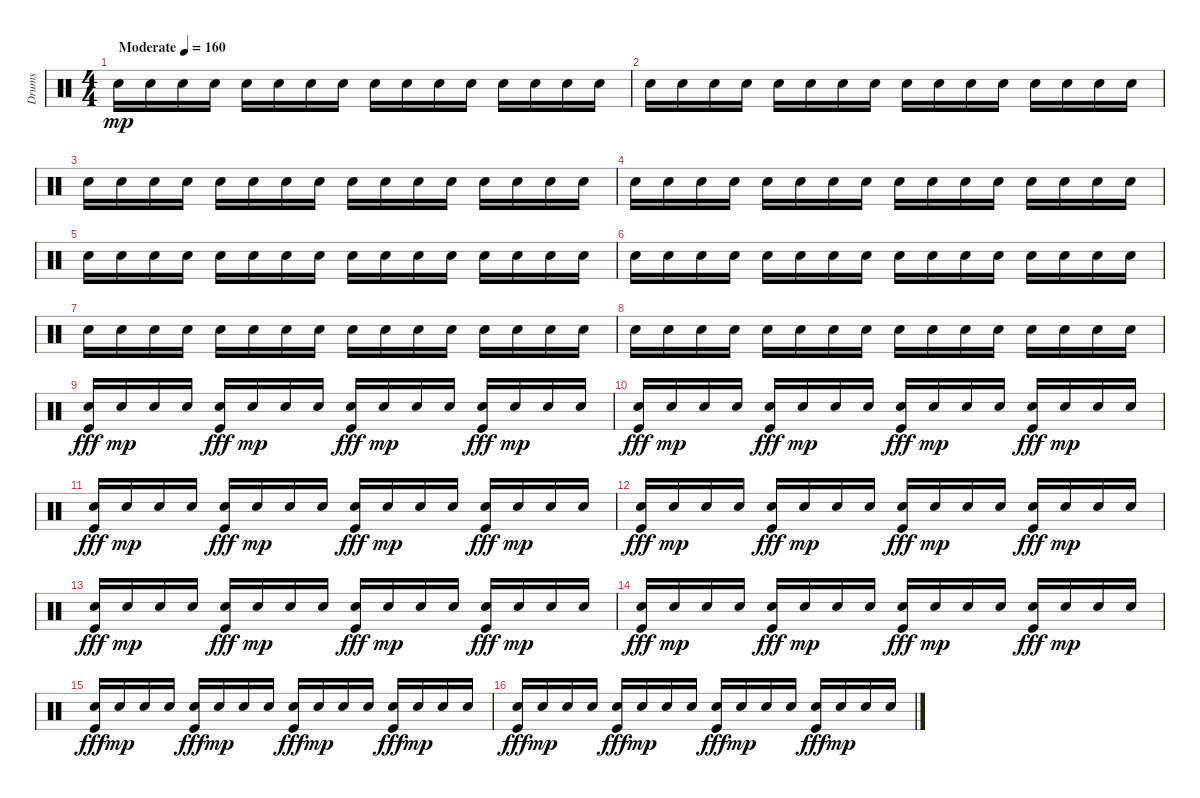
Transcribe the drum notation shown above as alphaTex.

\track ("Drums" "Drums") {instrument percussion}
\staff {score}
\articulation defaults
\ts (4 4)
\tempo (160 "Moderate")
\clef neutral
\ks c "Snare (hit) 2".16{dy mp volume 0} "Snare (hit) 2".16 "Snare (hit) 2".16 "Snare (hit) 2".16 "Snare (hit) 2".16{volume 13} "Snare (hit) 2".16 "Snare (hit) 2".16 "Snare (hit) 2".16 "Snare (hit) 2".16 "Snare (hit) 2".16 "Snare (hit) 2".16 "Snare (hit) 2".16 "Snare (hit) 2".16 "Snare (hit) 2".16 "Snare (hit) 2".16 "Snare (hit) 2".16
|
"Snare (hit) 2".16 "Snare (hit) 2".16 "Snare (hit) 2".16 "Snare (hit) 2".16 "Snare (hit) 2".16 "Snare (hit) 2".16 "Snare (hit) 2".16 "Snare (hit) 2".16 "Snare (hit) 2".16 "Snare (hit) 2".16 "Snare (hit) 2".16 "Snare (hit) 2".16 "Snare (hit) 2".16 "Snare (hit) 2".16 "Snare (hit) 2".16 "Snare (hit) 2".16 |
"Snare (hit) 2".16 "Snare (hit) 2".16 "Snare (hit) 2".16 "Snare (hit) 2".16 "Snare (hit) 2".16 "Snare (hit) 2".16 "Snare (hit) 2".16 "Snare (hit) 2".16 "Snare (hit) 2".16 "Snare (hit) 2".16 "Snare (hit) 2".16 "Snare (hit) 2".16 "Snare (hit) 2".16 "Snare (hit) 2".16 "Snare (hit) 2".16 "Snare (hit) 2".16 |
"Snare (hit) 2".16 "Snare (hit) 2".16 "Snare (hit) 2".16 "Snare (hit) 2".16 "Snare (hit) 2".16 "Snare (hit) 2".16 "Snare (hit) 2".16 "Snare (hit) 2".16 "Snare (hit) 2".16 "Snare (hit) 2".16 "Snare (hit) 2".16 "Snare (hit) 2".16 "Snare (hit) 2".16 "Snare (hit) 2".16 "Snare (hit) 2".16 "Snare (hit) 2".16 |
"Snare (hit) 2".16 "Snare (hit) 2".16 "Snare (hit) 2".16 "Snare (hit) 2".16 "Snare (hit) 2".16 "Snare (hit) 2".16 "Snare (hit) 2".16 "Snare (hit) 2".16 "Snare (hit) 2".16 "Snare (hit) 2".16 "Snare (hit) 2".16 "Snare (hit) 2".16 "Snare (hit) 2".16 "Snare (hit) 2".16 "Snare (hit) 2".16 "Snare (hit) 2".16 |
"Snare (hit) 2".16 "Snare (hit) 2".16 "Snare (hit) 2".16 "Snare (hit) 2".16 "Snare (hit) 2".16 "Snare (hit) 2".16 "Snare (hit) 2".16 "Snare (hit) 2".16 "Snare (hit) 2".16 "Snare (hit) 2".16 "Snare (hit) 2".16 "Snare (hit) 2".16 "Snare (hit) 2".16 "Snare (hit) 2".16 "Snare (hit) 2".16 "Snare (hit) 2".16 |
"Snare (hit) 2".16 "Snare (hit) 2".16 "Snare (hit) 2".16 "Snare (hit) 2".16 "Snare (hit) 2".16 "Snare (hit) 2".16 "Snare (hit) 2".16 "Snare (hit) 2".16 "Snare (hit) 2".16 "Snare (hit) 2".16 "Snare (hit) 2".16 "Snare (hit) 2".16 "Snare (hit) 2".16 "Snare (hit) 2".16 "Snare (hit) 2".16 "Snare (hit) 2".16 |
"Snare (hit) 2".16 "Snare (hit) 2".16 "Snare (hit) 2".16 "Snare (hit) 2".16 "Snare (hit) 2".16 "Snare (hit) 2".16 "Snare (hit) 2".16 "Snare (hit) 2".16 "Snare (hit) 2".16 "Snare (hit) 2".16 "Snare (hit) 2".16 "Snare (hit) 2".16 "Snare (hit) 2".16 "Snare (hit) 2".16 "Snare (hit) 2".16 "Snare (hit) 2".16 |
("Snare (hit) 2" "Kick (hit)").16{dy fff} "Snare (hit) 2".16{dy mp} "Snare (hit) 2".16 "Snare (hit) 2".16 ("Snare (hit) 2" "Kick (hit)").16{dy fff} "Snare (hit) 2".16{dy mp} "Snare (hit) 2".16 "Snare (hit) 2".16 ("Snare (hit) 2" "Kick (hit)").16{dy fff} "Snare (hit) 2".16{dy mp} "Snare (hit) 2".16 "Snare (hit) 2".16 ("Snare (hit) 2" "Kick (hit)").16{dy fff} "Snare (hit) 2".16{dy mp} "Snare (hit) 2".16 "Snare (hit) 2".16 |
("Snare (hit) 2" "Kick (hit)").16{dy fff} "Snare (hit) 2".16{dy mp} "Snare (hit) 2".16 "Snare (hit) 2".16 ("Snare (hit) 2" "Kick (hit)").16{dy fff} "Snare (hit) 2".16{dy mp} "Snare (hit) 2".16 "Snare (hit) 2".16 ("Snare (hit) 2" "Kick (hit)").16{dy fff} "Snare (hit) 2".16{dy mp} "Snare (hit) 2".16 "Snare (hit) 2".16 ("Snare (hit) 2" "Kick (hit)").16{dy fff} "Snare (hit) 2".16{dy mp} "Snare (hit) 2".16 "Snare (hit) 2".16 |
("Snare (hit) 2" "Kick (hit)").16{dy fff} "Snare (hit) 2".16{dy mp} "Snare (hit) 2".16 "Snare (hit) 2".16 ("Snare (hit) 2" "Kick (hit)").16{dy fff} "Snare (hit) 2".16{dy mp} "Snare (hit) 2".16 "Snare (hit) 2".16 ("Snare (hit) 2" "Kick (hit)").16{dy fff} "Snare (hit) 2".16{dy mp} "Snare (hit) 2".16 "Snare (hit) 2".16 ("Snare (hit) 2" "Kick (hit)").16{dy fff} "Snare (hit) 2".16{dy mp} "Snare (hit) 2".16 "Snare (hit) 2".16 |
("Snare (hit) 2" "Kick (hit)").16{dy fff} "Snare (hit) 2".16{dy mp} "Snare (hit) 2".16 "Snare (hit) 2".16 ("Snare (hit) 2" "Kick (hit)").16{dy fff} "Snare (hit) 2".16{dy mp} "Snare (hit) 2".16 "Snare (hit) 2".16 ("Snare (hit) 2" "Kick (hit)").16{dy fff} "Snare (hit) 2".16{dy mp} "Snare (hit) 2".16 "Snare (hit) 2".16 ("Snare (hit) 2" "Kick (hit)").16{dy fff} "Snare (hit) 2".16{dy mp} "Snare (hit) 2".16 "Snare (hit) 2".16 |
("Snare (hit) 2" "Kick (hit)").16{dy fff} "Snare (hit) 2".16{dy mp} "Snare (hit) 2".16 "Snare (hit) 2".16 ("Snare (hit) 2" "Kick (hit)").16{dy fff} "Snare (hit) 2".16{dy mp} "Snare (hit) 2".16 "Snare (hit) 2".16 ("Snare (hit) 2" "Kick (hit)").16{dy fff} "Snare (hit) 2".16{dy mp} "Snare (hit) 2".16 "Snare (hit) 2".16 ("Snare (hit) 2" "Kick (hit)").16{dy fff} "Snare (hit) 2".16{dy mp} "Snare (hit) 2".16 "Snare (hit) 2".16 |
("Snare (hit) 2" "Kick (hit)").16{dy fff} "Snare (hit) 2".16{dy mp} "Snare (hit) 2".16 "Snare (hit) 2".16 ("Snare (hit) 2" "Kick (hit)").16{dy fff} "Snare (hit) 2".16{dy mp} "Snare (hit) 2".16 "Snare (hit) 2".16 ("Snare (hit) 2" "Kick (hit)").16{dy fff} "Snare (hit) 2".16{dy mp} "Snare (hit) 2".16 "Snare (hit) 2".16 ("Snare (hit) 2" "Kick (hit)").16{dy fff} "Snare (hit) 2".16{dy mp} "Snare (hit) 2".16 "Snare (hit) 2".16 |
("Snare (hit) 2" "Kick (hit)").16{dy fff} "Snare (hit) 2".16{dy mp} "Snare (hit) 2".16 "Snare (hit) 2".16 ("Snare (hit) 2" "Kick (hit)").16{dy fff} "Snare (hit) 2".16{dy mp} "Snare (hit) 2".16 "Snare (hit) 2".16 ("Snare (hit) 2" "Kick (hit)").16{dy fff} "Snare (hit) 2".16{dy mp} "Snare (hit) 2".16 "Snare (hit) 2".16 ("Snare (hit) 2" "Kick (hit)").16{dy fff} "Snare (hit) 2".16{dy mp} "Snare (hit) 2".16 "Snare (hit) 2".16 |
("Snare (hit) 2" "Kick (hit)").16{dy fff} "Snare (hit) 2".16{dy mp} "Snare (hit) 2".16 "Snare (hit) 2".16 ("Snare (hit) 2" "Kick (hit)").16{dy fff} "Snare (hit) 2".16{dy mp} "Snare (hit) 2".16 "Snare (hit) 2".16 ("Snare (hit) 2" "Kick (hit)").16{dy fff} "Snare (hit) 2".16{dy mp} "Snare (hit) 2".16 "Snare (hit) 2".16 ("Snare (hit) 2" "Kick (hit)").16{dy fff} "Snare (hit) 2".16{dy mp} "Snare (hit) 2".16 "Snare (hit) 2".16
